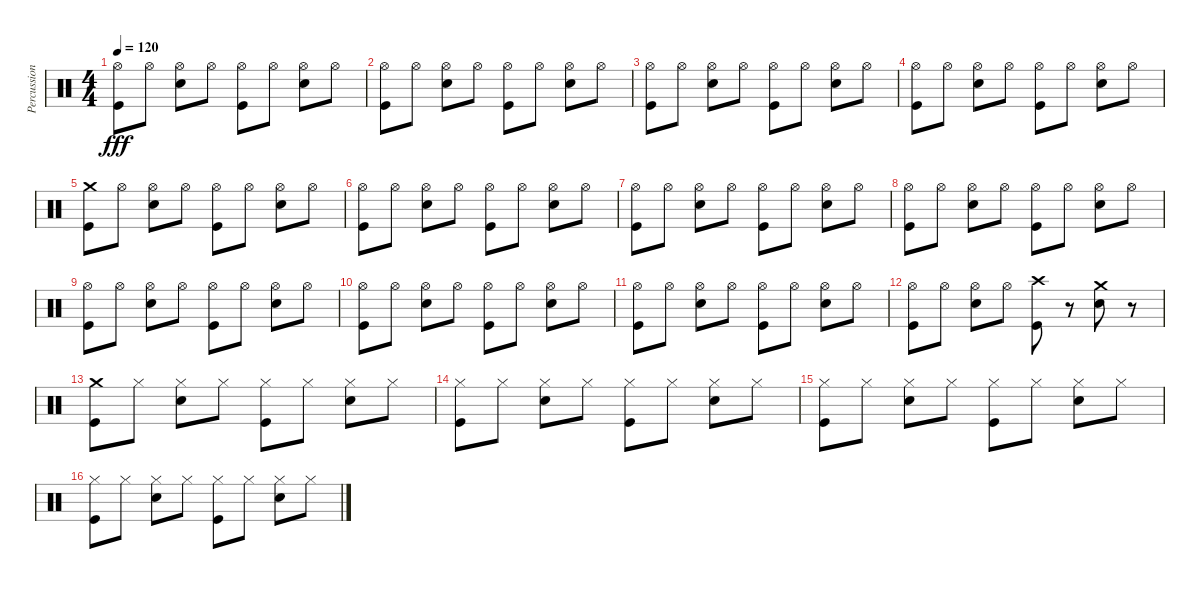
\track ("Percussions" "Percussion") {instrument percussion}
\staff {score}
\articulation defaults
\ts (4 4)
\tempo 120
\clef neutral
\ks c
("Hi-Hat (open)" "Kick (hit)").8{dy fff} "Hi-Hat (open)".8 ("Hi-Hat (open)" "Snare (hit) 2").8 "Hi-Hat (open)".8 ("Hi-Hat (open)" "Kick (hit)").8 "Hi-Hat (open)".8 ("Hi-Hat (open)" "Snare (hit) 2").8 "Hi-Hat (open)".8 |
("Hi-Hat (open)" "Kick (hit)").8 "Hi-Hat (open)".8 ("Hi-Hat (open)" "Snare (hit) 2").8 "Hi-Hat (open)".8 ("Hi-Hat (open)" "Kick (hit)").8 "Hi-Hat (open)".8 ("Hi-Hat (open)" "Snare (hit) 2").8 "Hi-Hat (open)".8 |
("Hi-Hat (open)" "Kick (hit)").8 "Hi-Hat (open)".8 ("Hi-Hat (open)" "Snare (hit) 2").8 "Hi-Hat (open)".8 ("Hi-Hat (open)" "Kick (hit)").8 "Hi-Hat (open)".8 ("Hi-Hat (open)" "Snare (hit) 2").8 "Hi-Hat (open)".8 |
("Hi-Hat (open)" "Kick (hit)").8 "Hi-Hat (open)".8 ("Hi-Hat (open)" "Snare (hit) 2").8 "Hi-Hat (open)".8 ("Hi-Hat (open)" "Kick (hit)").8 "Hi-Hat (open)".8 ("Hi-Hat (open)" "Snare (hit) 2").8 "Hi-Hat (open)".8 |
("Crash medium (hit)" "Kick (hit)").8 "Hi-Hat (open)".8 ("Hi-Hat (open)" "Snare (hit) 2").8 "Hi-Hat (open)".8 ("Hi-Hat (open)" "Kick (hit)").8 "Hi-Hat (open)".8 ("Hi-Hat (open)" "Snare (hit) 2").8 "Hi-Hat (open)".8 |
("Hi-Hat (open)" "Kick (hit)").8 "Hi-Hat (open)".8 ("Hi-Hat (open)" "Snare (hit) 2").8 "Hi-Hat (open)".8 ("Hi-Hat (open)" "Kick (hit)").8 "Hi-Hat (open)".8 ("Hi-Hat (open)" "Snare (hit) 2").8 "Hi-Hat (open)".8 |
("Hi-Hat (open)" "Kick (hit)").8 "Hi-Hat (open)".8 ("Hi-Hat (open)" "Snare (hit) 2").8 "Hi-Hat (open)".8 ("Hi-Hat (open)" "Kick (hit)").8 "Hi-Hat (open)".8 ("Hi-Hat (open)" "Snare (hit) 2").8 "Hi-Hat (open)".8 |
("Hi-Hat (open)" "Kick (hit)").8 "Hi-Hat (open)".8 ("Hi-Hat (open)" "Snare (hit) 2").8 "Hi-Hat (open)".8 ("Hi-Hat (open)" "Kick (hit)").8 "Hi-Hat (open)".8 ("Hi-Hat (open)" "Snare (hit) 2").8 "Hi-Hat (open)".8 |
("Hi-Hat (open)" "Kick (hit)").8 "Hi-Hat (open)".8 ("Hi-Hat (open)" "Snare (hit) 2").8 "Hi-Hat (open)".8 ("Hi-Hat (open)" "Kick (hit)").8 "Hi-Hat (open)".8 ("Hi-Hat (open)" "Snare (hit) 2").8 "Hi-Hat (open)".8 |
("Hi-Hat (open)" "Kick (hit)").8 "Hi-Hat (open)".8 ("Hi-Hat (open)" "Snare (hit) 2").8 "Hi-Hat (open)".8 ("Hi-Hat (open)" "Kick (hit)").8 "Hi-Hat (open)".8 ("Hi-Hat (open)" "Snare (hit) 2").8 "Hi-Hat (open)".8 |
("Hi-Hat (open)" "Kick (hit)").8 "Hi-Hat (open)".8 ("Hi-Hat (open)" "Snare (hit) 2").8 "Hi-Hat (open)".8 ("Hi-Hat (open)" "Kick (hit)").8 "Hi-Hat (open)".8 ("Hi-Hat (open)" "Snare (hit) 2").8 "Hi-Hat (open)".8 |
("Hi-Hat (open)" "Kick (hit)").8 "Hi-Hat (open)".8 ("Hi-Hat (open)" "Snare (hit) 2").8 "Hi-Hat (open)".8 ("Crash high (hit)" "Kick (hit)").8 r.8 ("Crash medium (hit)" "Snare (hit) 2").8 r.8 |
("Crash medium (hit)" "Kick (hit)").8 "Hi-Hat (closed)".8 ("Hi-Hat (closed)" "Snare (hit) 2").8 "Hi-Hat (closed)".8 ("Hi-Hat (closed)" "Kick (hit)").8 "Hi-Hat (closed)".8 ("Hi-Hat (closed)" "Snare (hit) 2").8 "Hi-Hat (closed)".8 |
("Hi-Hat (closed)" "Kick (hit)").8 "Hi-Hat (closed)".8 ("Hi-Hat (closed)" "Snare (hit) 2").8 "Hi-Hat (closed)".8 ("Hi-Hat (closed)" "Kick (hit)").8 "Hi-Hat (closed)".8 ("Hi-Hat (closed)" "Snare (hit) 2").8 "Hi-Hat (closed)".8 |
("Hi-Hat (closed)" "Kick (hit)").8 "Hi-Hat (closed)".8 ("Hi-Hat (closed)" "Snare (hit) 2").8 "Hi-Hat (closed)".8 ("Hi-Hat (closed)" "Kick (hit)").8 "Hi-Hat (closed)".8 ("Hi-Hat (closed)" "Snare (hit) 2").8 "Hi-Hat (closed)".8 |
("Hi-Hat (closed)" "Kick (hit)").8 "Hi-Hat (closed)".8 ("Hi-Hat (closed)" "Snare (hit) 2").8 "Hi-Hat (closed)".8 ("Hi-Hat (closed)" "Kick (hit)").8 "Hi-Hat (closed)".8 ("Hi-Hat (closed)" "Snare (hit) 2").8 "Hi-Hat (closed)".8
